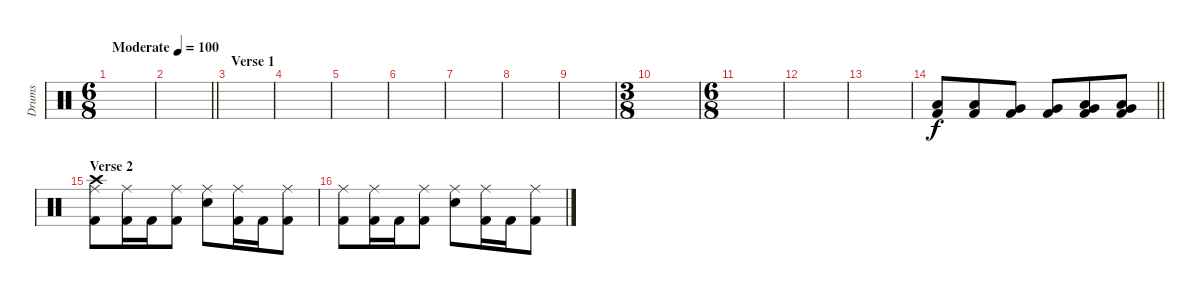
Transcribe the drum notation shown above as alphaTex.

\track ("Drums" "Drums") {instrument percussion}
\staff {score}
\articulation defaults
\ts (6 8)
\tempo (100 "Moderate")
\clef neutral
\ks c
|
\barLineRight lightlight
|
\section ("" "Verse 1")
|
|
|
|
|
|
|
\ts (3 8)
|
\ts (6 8)
|
|
|
\barLineRight lightlight
("Low Floor Tom (hit)" "Kick (hit) 2").8 ("Low Floor Tom (hit)" "Kick (hit) 2").8 ("Very Low Tom (hit)" "Kick (hit) 2").8 ("Very Low Tom (hit)" "Kick (hit) 2").8 ("Low Tom (hit)" "Very Low Tom (hit)" "Kick (hit) 2").8 ("Low Tom (hit)" "Very Low Tom (hit)" "Kick (hit) 2").8 |
\section ("" "Verse 2")
("Crash high (hit)" "Ride (middle)" "Kick (hit) 2").8 ("Ride (middle)" "Kick (hit) 2").16 "Kick (hit) 2".16 ("Ride (middle)" "Kick (hit) 2").8 ("Ride (middle)" "Snare (hit) 2").8 ("Ride (middle)" "Kick (hit) 2").16 "Kick (hit) 2".16 ("Ride (middle)" "Kick (hit) 2").8 |
("Ride (middle)" "Kick (hit) 2").8 ("Ride (middle)" "Kick (hit) 2").16 "Kick (hit) 2".16 ("Ride (middle)" "Kick (hit) 2").8 ("Ride (middle)" "Snare (hit) 2").8 ("Ride (middle)" "Kick (hit) 2").16 "Kick (hit) 2".16 ("Ride (middle)" "Kick (hit) 2").8
